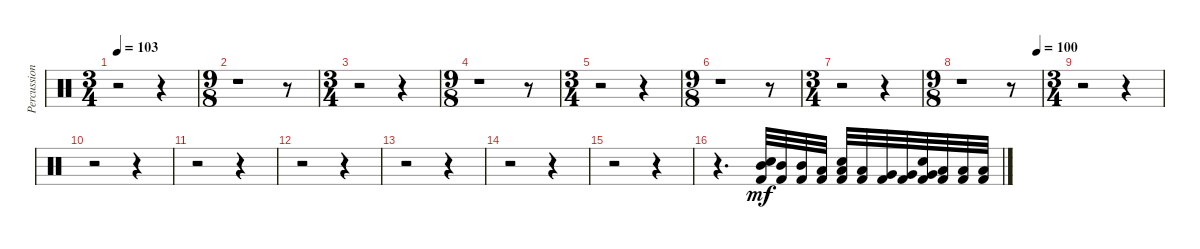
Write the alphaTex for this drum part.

\track ("Percussion" "Percussion") {instrument percussion}
\staff {score}
\articulation defaults
\ts (3 4)
\tempo 103
\clef neutral
\ks c
r.2{dy f} r.4 |
\ts (9 8)
r.1 r.8 |
\ts (3 4)
r.2 r.4 |
\ts (9 8)
r.1 r.8 |
\ts (3 4)
r.2 r.4 |
\ts (9 8)
r.1 r.8 |
\ts (3 4)
r.2 r.4 |
\ts (9 8)
\tempo (100 0.9444444444444444)
r.1 r.8 |
\ts (3 4)
r.2 r.4 |
r.2 r.4 |
r.2 r.4 |
r.2 r.4 |
r.2 r.4 |
r.2 r.4 |
r.2 r.4 |
r.4{d} ("Mid Tom (hit)" "Electric Snare (hit)" "Kick (hit) 2").32{dy mf} ("Mid Tom (hit)" "Kick (hit) 2").32 ("Mid Tom (hit)" "Kick (hit) 2").32 ("Low Tom (hit)" "Kick (hit) 2").32 ("Low Tom (hit)" "Electric Snare (hit)" "Kick (hit) 2").32 ("Low Tom (hit)" "Kick (hit) 2").32 ("Very Low Tom (hit)" "Kick (hit) 2").32 ("Very Low Tom (hit)" "Kick (hit) 2").32 ("Very Low Tom (hit)" "Electric Snare (hit)" "Kick (hit) 2").32 ("Low Floor Tom (hit)" "Kick (hit) 2").32 ("Low Floor Tom (hit)" "Kick (hit) 2").32 ("Low Floor Tom (hit)" "Kick (hit) 2").32
